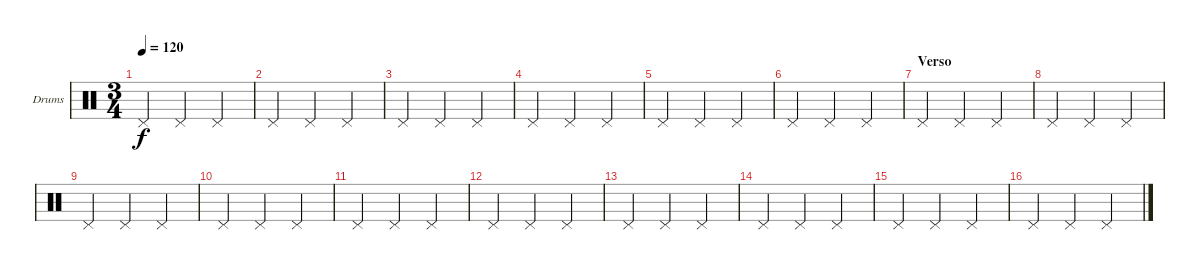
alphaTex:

\bracketExtendMode groupsimilarinstruments
\firstSystemTrackNameOrientation horizontal
\otherSystemsTrackNameOrientation horizontal
\track ("Drumkit" "Drums") {instrument percussion}
\staff {score}
\articulation defaults
\ts (3 4)
\tempo 120
\clef neutral
\ks c "Pedal Hi-Hat (hit)".4{dy f} "Pedal Hi-Hat (hit)".4 "Pedal Hi-Hat (hit)".4
|
"Pedal Hi-Hat (hit)".4 "Pedal Hi-Hat (hit)".4 "Pedal Hi-Hat (hit)".4 |
"Pedal Hi-Hat (hit)".4 "Pedal Hi-Hat (hit)".4 "Pedal Hi-Hat (hit)".4 |
"Pedal Hi-Hat (hit)".4 "Pedal Hi-Hat (hit)".4 "Pedal Hi-Hat (hit)".4 |
"Pedal Hi-Hat (hit)".4 "Pedal Hi-Hat (hit)".4 "Pedal Hi-Hat (hit)".4 |
"Pedal Hi-Hat (hit)".4 "Pedal Hi-Hat (hit)".4 "Pedal Hi-Hat (hit)".4 |
\section ("" "Verso")
"Pedal Hi-Hat (hit)".4 "Pedal Hi-Hat (hit)".4 "Pedal Hi-Hat (hit)".4 |
"Pedal Hi-Hat (hit)".4 "Pedal Hi-Hat (hit)".4 "Pedal Hi-Hat (hit)".4 |
"Pedal Hi-Hat (hit)".4 "Pedal Hi-Hat (hit)".4 "Pedal Hi-Hat (hit)".4 |
"Pedal Hi-Hat (hit)".4 "Pedal Hi-Hat (hit)".4 "Pedal Hi-Hat (hit)".4 |
"Pedal Hi-Hat (hit)".4 "Pedal Hi-Hat (hit)".4 "Pedal Hi-Hat (hit)".4 |
"Pedal Hi-Hat (hit)".4 "Pedal Hi-Hat (hit)".4 "Pedal Hi-Hat (hit)".4 |
"Pedal Hi-Hat (hit)".4 "Pedal Hi-Hat (hit)".4 "Pedal Hi-Hat (hit)".4 |
"Pedal Hi-Hat (hit)".4 "Pedal Hi-Hat (hit)".4 "Pedal Hi-Hat (hit)".4 |
"Pedal Hi-Hat (hit)".4 "Pedal Hi-Hat (hit)".4 "Pedal Hi-Hat (hit)".4 |
"Pedal Hi-Hat (hit)".4 "Pedal Hi-Hat (hit)".4 "Pedal Hi-Hat (hit)".4
